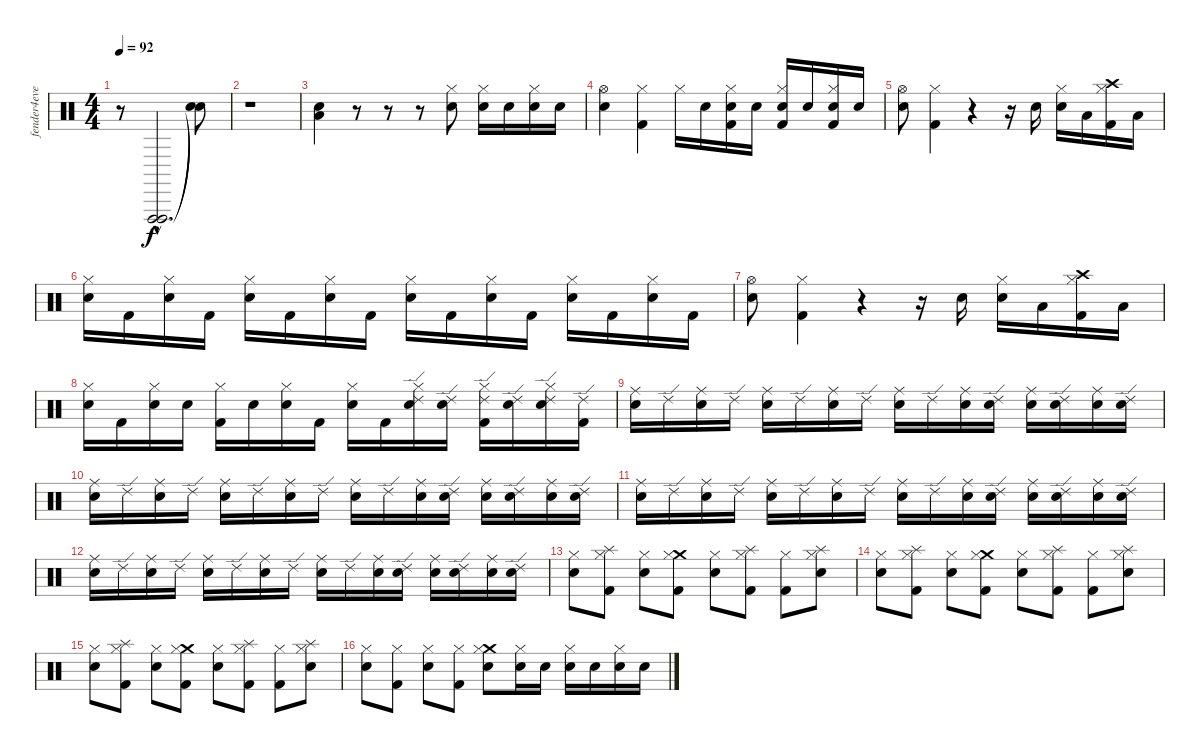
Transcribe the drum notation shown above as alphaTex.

\track ("fender4ever@hotmail.com" "fender4eve") {instrument percussion}
\staff {score}
\articulation defaults
\ts (4 4)
\tempo 92
\clef neutral
\ks c
r.8{dy f} ("Vibraslap (hit)"{hac} "Vibraslap (hit)"{hac}).2{d} ("Snare (hit)"{t} "Snare (hit)"{t}).8 |
r.1 |
("Electric Snare (hit)" "Low Floor Tom (hit)").4 r.8 r.8 r.8 ("Electric Snare (hit)" "Hi-Hat (closed)").8 ("Electric Snare (hit)" "Hi-Hat (closed)").16 "Electric Snare (hit)".16 ("Electric Snare (hit)" "Hi-Hat (closed)").16 "Electric Snare (hit)".16 |
("Electric Snare (hit)" "Hi-Hat (open)").4 ("Kick (hit) 2" "Hi-Hat (closed)").4 "Hi-Hat (closed)".16 "Electric Snare (hit)".16 ("Electric Snare (hit)" "Kick (hit) 2" "Hi-Hat (closed)").16 "Electric Snare (hit)".16 ("Electric Snare (hit)" "Kick (hit) 2" "Hi-Hat (closed)").16 "Electric Snare (hit)".16 ("Electric Snare (hit)" "Kick (hit) 2" "Hi-Hat (closed)").16 "Electric Snare (hit)".16 |
("Electric Snare (hit)" "Hi-Hat (open)").8 ("Kick (hit) 2" "Hi-Hat (closed)").4 r.4 r.16 "Electric Snare (hit)".16 ("Electric Snare (hit)" "Hi-Hat (closed)").16 "Low Floor Tom (hit)".16 ("Kick (hit) 2" "Crash high (hit)" "Hi-Hat (closed)").16 "Low Floor Tom (hit)".16 |
("Electric Snare (hit)" "Hi-Hat (closed)").16 "Kick (hit) 2".16 ("Electric Snare (hit)" "Hi-Hat (closed)").16 "Kick (hit) 2".16 ("Electric Snare (hit)" "Hi-Hat (closed)").16 "Kick (hit) 2".16 ("Electric Snare (hit)" "Hi-Hat (closed)").16 "Kick (hit) 2".16 ("Electric Snare (hit)" "Hi-Hat (closed)").16 "Kick (hit) 2".16 ("Electric Snare (hit)" "Hi-Hat (closed)").16 "Kick (hit) 2".16 ("Electric Snare (hit)" "Hi-Hat (closed)").16 "Kick (hit) 2".16 ("Electric Snare (hit)" "Hi-Hat (closed)").16 "Kick (hit) 2".16 |
("Electric Snare (hit)" "Hi-Hat (open)").8 ("Kick (hit) 2" "Hi-Hat (closed)").4 r.4 r.16 "Electric Snare (hit)".16 ("Electric Snare (hit)" "Hi-Hat (closed)").16 "Low Floor Tom (hit)".16 ("Kick (hit) 2" "Crash high (hit)" "Hi-Hat (closed)").16 "Low Floor Tom (hit)".16 |
("Electric Snare (hit)" "Hi-Hat (closed)").16 "Kick (hit) 2".16 ("Electric Snare (hit)" "Hi-Hat (closed)").16 "Electric Snare (hit)".16 ("Kick (hit) 2" "Hi-Hat (closed)").16 "Electric Snare (hit)".16 ("Electric Snare (hit)" "Hi-Hat (closed)").16 "Kick (hit) 2".16 ("Electric Snare (hit)" "Hi-Hat (closed)").16 "Kick (hit) 2".16 ("Electric Snare (hit)" "Ride (edge) 2" "Hi-Hat (closed)").16 ("Electric Snare (hit)" "Ride (edge) 2").16 ("Kick (hit) 2" "Ride (edge) 2" "Hi-Hat (closed)").16 ("Electric Snare (hit)" "Ride (edge) 2").16 ("Electric Snare (hit)" "Ride (edge) 2" "Hi-Hat (closed)").16 ("Kick (hit) 2" "Ride (edge) 2").16 |
("Electric Snare (hit)" "Ride (middle)").16 "Ride (edge) 2".16 ("Electric Snare (hit)" "Ride (middle)").16 "Ride (edge) 2".16 ("Electric Snare (hit)" "Ride (middle)").16 "Ride (edge) 2".16 ("Electric Snare (hit)" "Ride (middle)").16 "Ride (edge) 2".16 ("Electric Snare (hit)" "Ride (middle)").16 "Ride (edge) 2".16 ("Electric Snare (hit)" "Ride (middle)").16 ("Electric Snare (hit)" "Ride (edge) 2").16 ("Electric Snare (hit)" "Ride (middle)").16 ("Electric Snare (hit)" "Ride (edge) 2").16 ("Electric Snare (hit)" "Ride (middle)").16 ("Electric Snare (hit)" "Ride (edge) 2").16 |
("Electric Snare (hit)" "Ride (middle)").16 "Ride (edge) 2".16 ("Electric Snare (hit)" "Ride (middle)").16 "Ride (edge) 2".16 ("Electric Snare (hit)" "Ride (middle)").16 "Ride (edge) 2".16 ("Electric Snare (hit)" "Ride (middle)").16 "Ride (edge) 2".16 ("Electric Snare (hit)" "Ride (middle)").16 "Ride (edge) 2".16 ("Electric Snare (hit)" "Ride (middle)").16 ("Electric Snare (hit)" "Ride (edge) 2").16 ("Electric Snare (hit)" "Ride (middle)").16 ("Electric Snare (hit)" "Ride (edge) 2").16 ("Electric Snare (hit)" "Ride (middle)").16 ("Electric Snare (hit)" "Ride (edge) 2").16 |
("Electric Snare (hit)" "Ride (middle)").16 "Ride (edge) 2".16 ("Electric Snare (hit)" "Ride (middle)").16 "Ride (edge) 2".16 ("Electric Snare (hit)" "Ride (middle)").16 "Ride (edge) 2".16 ("Electric Snare (hit)" "Ride (middle)").16 "Ride (edge) 2".16 ("Electric Snare (hit)" "Ride (middle)").16 "Ride (edge) 2".16 ("Electric Snare (hit)" "Ride (middle)").16 ("Electric Snare (hit)" "Ride (edge) 2").16 ("Electric Snare (hit)" "Ride (middle)").16 ("Electric Snare (hit)" "Ride (edge) 2").16 ("Electric Snare (hit)" "Ride (middle)").16 ("Electric Snare (hit)" "Ride (edge) 2").16 |
("Electric Snare (hit)" "Ride (middle)").16 "Ride (edge) 2".16 ("Electric Snare (hit)" "Ride (middle)").16 "Ride (edge) 2".16 ("Electric Snare (hit)" "Ride (middle)").16 "Ride (edge) 2".16 ("Electric Snare (hit)" "Ride (middle)").16 "Ride (edge) 2".16 ("Electric Snare (hit)" "Ride (middle)").16 "Ride (edge) 2".16 ("Electric Snare (hit)" "Ride (middle)").16 ("Electric Snare (hit)" "Ride (edge) 2").16 ("Electric Snare (hit)" "Ride (middle)").16 ("Electric Snare (hit)" "Ride (edge) 2").16 ("Electric Snare (hit)" "Ride (middle)").16 ("Electric Snare (hit)" "Ride (edge) 2").16 |
("Electric Snare (hit)" "Hi-Hat (closed)").8 ("Kick (hit) 2" "Splash (hit)" "Hi-Hat (closed)").8 ("Electric Snare (hit)" "Hi-Hat (closed)").8 ("Kick (hit) 2" "Crash medium (hit)" "Hi-Hat (closed)").8 ("Electric Snare (hit)" "Hi-Hat (closed)").8 ("Kick (hit) 2" "Splash (hit)" "Hi-Hat (closed)").8 ("Kick (hit) 2" "Hi-Hat (closed)").8 ("Electric Snare (hit)" "Splash (hit)" "Hi-Hat (closed)").8 |
("Electric Snare (hit)" "Hi-Hat (closed)").8 ("Kick (hit) 2" "Splash (hit)" "Hi-Hat (closed)").8 ("Electric Snare (hit)" "Hi-Hat (closed)").8 ("Kick (hit) 2" "Crash medium (hit)" "Hi-Hat (closed)").8 ("Electric Snare (hit)" "Hi-Hat (closed)").8 ("Kick (hit) 2" "Splash (hit)" "Hi-Hat (closed)").8 ("Kick (hit) 2" "Hi-Hat (closed)").8 ("Electric Snare (hit)" "Splash (hit)" "Hi-Hat (closed)").8 |
("Electric Snare (hit)" "Hi-Hat (closed)").8 ("Kick (hit) 2" "Splash (hit)" "Hi-Hat (closed)").8 ("Electric Snare (hit)" "Hi-Hat (closed)").8 ("Kick (hit) 2" "Crash medium (hit)" "Hi-Hat (closed)").8 ("Electric Snare (hit)" "Hi-Hat (closed)").8 ("Kick (hit) 2" "Splash (hit)" "Hi-Hat (closed)").8 ("Kick (hit) 2" "Hi-Hat (closed)").8 ("Electric Snare (hit)" "Splash (hit)" "Hi-Hat (closed)").8 |
("Electric Snare (hit)" "Hi-Hat (closed)").8 ("Kick (hit) 2" "Hi-Hat (closed)").8 ("Electric Snare (hit)" "Hi-Hat (closed)").8 ("Kick (hit) 2" "Hi-Hat (closed)").8 ("Electric Snare (hit)" "Crash medium (hit)" "Hi-Hat (closed)").8 ("Electric Snare (hit)" "Hi-Hat (closed)").16 "Electric Snare (hit)".16 ("Electric Snare (hit)" "Hi-Hat (closed)").16 "Electric Snare (hit)".16 ("Electric Snare (hit)" "Hi-Hat (closed)").16 "Electric Snare (hit)".16
